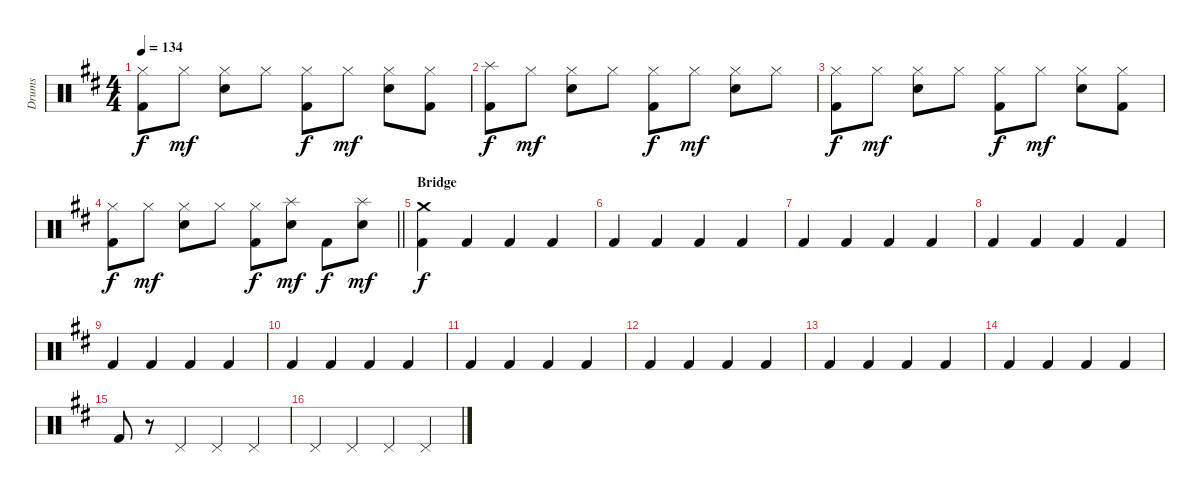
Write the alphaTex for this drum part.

\track ("Drums" "Drums") {instrument percussion}
\staff {score}
\articulation defaults
\ts (4 4)
\tempo 134
\clef neutral
\ks d
("Hi-Hat (closed)" "Kick (hit) 2").8{dy f} "Hi-Hat (closed)".8{dy mf} ("Hi-Hat (closed)" "Snare (hit) 2").8 "Hi-Hat (closed)".8 ("Hi-Hat (closed)" "Kick (hit) 2").8{dy f} "Hi-Hat (closed)".8{dy mf} ("Hi-Hat (closed)" "Snare (hit) 2").8 ("Hi-Hat (closed)" "Kick (hit) 2").8 |
("Splash (hit)" "Kick (hit) 2").8{dy f} "Hi-Hat (closed)".8{dy mf} ("Hi-Hat (closed)" "Snare (hit) 2").8 "Hi-Hat (closed)".8 ("Hi-Hat (closed)" "Kick (hit) 2").8{dy f} "Hi-Hat (closed)".8{dy mf} ("Hi-Hat (closed)" "Snare (hit) 2").8 "Hi-Hat (closed)".8 |
("Hi-Hat (closed)" "Kick (hit) 2").8{dy f} "Hi-Hat (closed)".8{dy mf} ("Hi-Hat (closed)" "Snare (hit) 2").8 "Hi-Hat (closed)".8 ("Hi-Hat (closed)" "Kick (hit) 2").8{dy f} "Hi-Hat (closed)".8{dy mf} ("Hi-Hat (closed)" "Snare (hit) 2").8 ("Hi-Hat (closed)" "Kick (hit) 2").8 |
\barLineRight lightlight
("Hi-Hat (closed)" "Kick (hit) 2").8{dy f} "Hi-Hat (closed)".8{dy mf} ("Hi-Hat (closed)" "Snare (hit) 2").8 "Hi-Hat (closed)".8 ("Hi-Hat (closed)" "Kick (hit) 2").8{dy f} ("Splash (hit)" "Snare (hit) 2").8{dy mf} "Kick (hit) 2".8{dy f} ("Splash (hit)" "Snare (hit) 2").8{dy mf} |
\section ("" "Bridge")
("Crash medium (hit)" "Kick (hit) 2").4{dy f} "Kick (hit) 2".4 "Kick (hit) 2".4 "Kick (hit) 2".4 |
"Kick (hit) 2".4 "Kick (hit) 2".4 "Kick (hit) 2".4 "Kick (hit) 2".4 |
"Kick (hit) 2".4 "Kick (hit) 2".4 "Kick (hit) 2".4 "Kick (hit) 2".4 |
"Kick (hit) 2".4 "Kick (hit) 2".4 "Kick (hit) 2".4 "Kick (hit) 2".4 |
"Kick (hit) 2".4 "Kick (hit) 2".4 "Kick (hit) 2".4 "Kick (hit) 2".4 |
"Kick (hit) 2".4 "Kick (hit) 2".4 "Kick (hit) 2".4 "Kick (hit) 2".4 |
"Kick (hit) 2".4 "Kick (hit) 2".4 "Kick (hit) 2".4 "Kick (hit) 2".4 |
"Kick (hit) 2".4 "Kick (hit) 2".4 "Kick (hit) 2".4 "Kick (hit) 2".4 |
"Kick (hit) 2".4 "Kick (hit) 2".4 "Kick (hit) 2".4 "Kick (hit) 2".4 |
"Kick (hit) 2".4 "Kick (hit) 2".4 "Kick (hit) 2".4 "Kick (hit) 2".4 |
"Kick (hit) 2".8 r.8 "Pedal Hi-Hat (hit)".4 "Pedal Hi-Hat (hit)".4 "Pedal Hi-Hat (hit)".4 |
"Pedal Hi-Hat (hit)".4 "Pedal Hi-Hat (hit)".4 "Pedal Hi-Hat (hit)".4 "Pedal Hi-Hat (hit)".4
